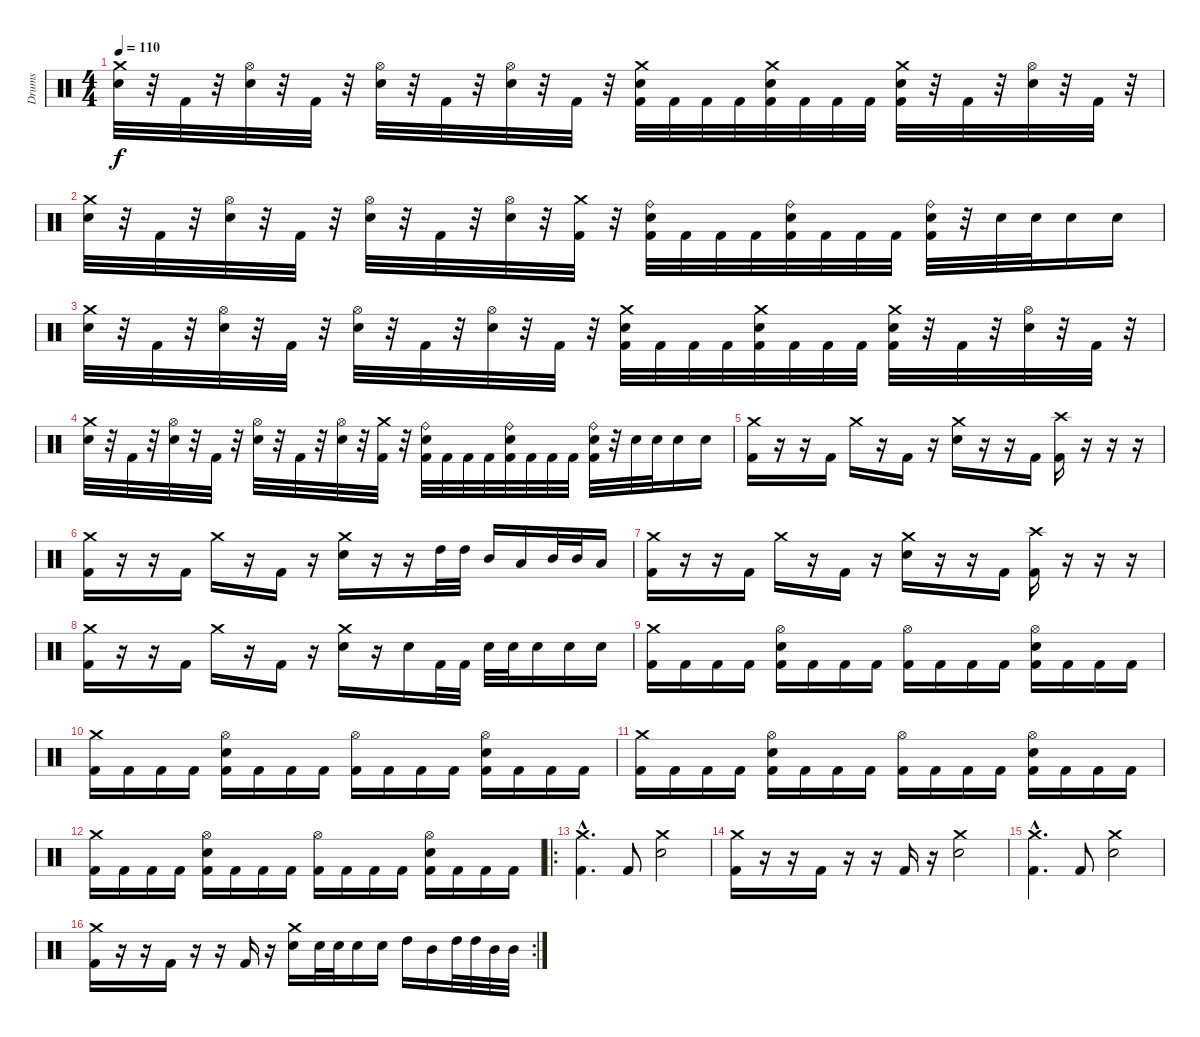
\track ("Drums" "Drums") {instrument percussion}
\staff {score}
\articulation defaults
\ts (4 4)
\tempo 110
\clef neutral
\ks c
("Crash medium (hit)" "Electric Snare (hit)").32{dy f} r.32 "Kick (hit) 2".32 r.32 ("Hi-Hat (open)" "Electric Snare (hit)").32 r.32 "Kick (hit) 2".32 r.32 ("Hi-Hat (open)" "Electric Snare (hit)").32 r.32 "Kick (hit) 2".32 r.32 ("Hi-Hat (open)" "Electric Snare (hit)").32 r.32 "Kick (hit) 2".32 r.32 ("Crash medium (hit)" "Electric Snare (hit)" "Kick (hit) 2").32 "Kick (hit) 2".32 "Kick (hit) 2".32 "Kick (hit) 2".32 ("Crash medium (hit)" "Electric Snare (hit)" "Kick (hit) 2").32 "Kick (hit) 2".32 "Kick (hit) 2".32 "Kick (hit) 2".32 ("Crash medium (hit)" "Electric Snare (hit)" "Kick (hit) 2").32 r.32 "Kick (hit) 2".32 r.32 ("Hi-Hat (open)" "Electric Snare (hit)").32 r.32 "Kick (hit) 2".32 r.32 |
("Crash medium (hit)" "Electric Snare (hit)").32 r.32 "Kick (hit) 2".32 r.32 ("Hi-Hat (open)" "Electric Snare (hit)").32 r.32 "Kick (hit) 2".32 r.32 ("Hi-Hat (open)" "Electric Snare (hit)").32 r.32 "Kick (hit) 2".32 r.32 ("Hi-Hat (open)" "Electric Snare (hit)").32 r.32 ("Crash medium (hit)" "Kick (hit) 2").32 r.32 ("Ride (bell)" "Electric Snare (hit)" "Kick (hit) 2").32 "Kick (hit) 2".32 "Kick (hit) 2".32 "Kick (hit) 2".32 ("Ride (bell)" "Electric Snare (hit)" "Kick (hit) 2").32 "Kick (hit) 2".32 "Kick (hit) 2".32 "Kick (hit) 2".32 ("Ride (bell)" "Electric Snare (hit)" "Kick (hit) 2").32 r.32 "Electric Snare (hit)".32 "Electric Snare (hit)".32 "Electric Snare (hit)".16 "Electric Snare (hit)".16 |
("Crash medium (hit)" "Electric Snare (hit)").32 r.32 "Kick (hit) 2".32 r.32 ("Hi-Hat (open)" "Electric Snare (hit)").32 r.32 "Kick (hit) 2".32 r.32 ("Hi-Hat (open)" "Electric Snare (hit)").32 r.32 "Kick (hit) 2".32 r.32 ("Hi-Hat (open)" "Electric Snare (hit)").32 r.32 "Kick (hit) 2".32 r.32 ("Crash medium (hit)" "Electric Snare (hit)" "Kick (hit) 2").32 "Kick (hit) 2".32 "Kick (hit) 2".32 "Kick (hit) 2".32 ("Crash medium (hit)" "Electric Snare (hit)" "Kick (hit) 2").32 "Kick (hit) 2".32 "Kick (hit) 2".32 "Kick (hit) 2".32 ("Crash medium (hit)" "Electric Snare (hit)" "Kick (hit) 2").32 r.32 "Kick (hit) 2".32 r.32 ("Hi-Hat (open)" "Electric Snare (hit)").32 r.32 "Kick (hit) 2".32 r.32 |
("Crash medium (hit)" "Electric Snare (hit)").32 r.32 "Kick (hit) 2".32 r.32 ("Hi-Hat (open)" "Electric Snare (hit)").32 r.32 "Kick (hit) 2".32 r.32 ("Hi-Hat (open)" "Electric Snare (hit)").32 r.32 "Kick (hit) 2".32 r.32 ("Hi-Hat (open)" "Electric Snare (hit)").32 r.32 ("Crash medium (hit)" "Kick (hit) 2").32 r.32 ("Ride (bell)" "Electric Snare (hit)" "Kick (hit) 2").32 "Kick (hit) 2".32 "Kick (hit) 2".32 "Kick (hit) 2".32 ("Ride (bell)" "Electric Snare (hit)" "Kick (hit) 2").32 "Kick (hit) 2".32 "Kick (hit) 2".32 "Kick (hit) 2".32 ("Ride (bell)" "Electric Snare (hit)" "Kick (hit) 2").32 r.32 "Electric Snare (hit)".32 "Electric Snare (hit)".32 "Electric Snare (hit)".16 "Electric Snare (hit)".16 |
("Crash medium (hit)" "Kick (hit) 2").16 r.16 r.16 "Kick (hit) 2".16 "Crash medium (hit)".16 r.16 "Kick (hit) 2".16 r.16 ("Crash medium (hit)" "Electric Snare (hit)").16 r.16 r.16 "Kick (hit) 2".16 ("Crash high (hit)" "Kick (hit) 2").16 r.16 r.16 r.16 |
("Crash medium (hit)" "Kick (hit) 2").16 r.16 r.16 "Kick (hit) 2".16 "Crash medium (hit)".16 r.16 "Kick (hit) 2".16 r.16 ("Crash medium (hit)" "Electric Snare (hit)").16 r.16 r.16 "High Tom (hit)".32 "High Tom (hit)".32 "Mid Tom (hit)".16 "Low Tom (hit)".16 "Mid Tom (hit)".32 "Mid Tom (hit)".32 "Low Tom (hit)".16 |
("Crash medium (hit)" "Kick (hit) 2").16 r.16 r.16 "Kick (hit) 2".16 "Crash medium (hit)".16 r.16 "Kick (hit) 2".16 r.16 ("Crash medium (hit)" "Electric Snare (hit)").16 r.16 r.16 "Kick (hit) 2".16 ("Crash high (hit)" "Kick (hit) 2").16 r.16 r.16 r.16 |
("Crash medium (hit)" "Kick (hit) 2").16 r.16 r.16 "Kick (hit) 2".16 "Crash medium (hit)".16 r.16 "Kick (hit) 2".16 r.16 ("Crash medium (hit)" "Electric Snare (hit)").16 r.16 "Electric Snare (hit)".16 "Kick (hit) 2".32 "Kick (hit) 2".32 "Electric Snare (hit)".32 "Electric Snare (hit)".32 "Electric Snare (hit)".16 "Electric Snare (hit)".16 "Electric Snare (hit)".16 |
("Crash medium (hit)" "Kick (hit) 2").16 "Kick (hit) 2".16 "Kick (hit) 2".16 "Kick (hit) 2".16 ("Hi-Hat (open)" "Electric Snare (hit)" "Kick (hit) 2").16 "Kick (hit) 2".16 "Kick (hit) 2".16 "Kick (hit) 2".16 ("Hi-Hat (open)" "Kick (hit) 2").16 "Kick (hit) 2".16 "Kick (hit) 2".16 "Kick (hit) 2".16 ("Hi-Hat (open)" "Electric Snare (hit)" "Kick (hit) 2").16 "Kick (hit) 2".16 "Kick (hit) 2".16 "Kick (hit) 2".16 |
("Crash medium (hit)" "Kick (hit) 2").16 "Kick (hit) 2".16 "Kick (hit) 2".16 "Kick (hit) 2".16 ("Hi-Hat (open)" "Electric Snare (hit)" "Kick (hit) 2").16 "Kick (hit) 2".16 "Kick (hit) 2".16 "Kick (hit) 2".16 ("Hi-Hat (open)" "Kick (hit) 2").16 "Kick (hit) 2".16 "Kick (hit) 2".16 "Kick (hit) 2".16 ("Hi-Hat (open)" "Electric Snare (hit)" "Kick (hit) 2").16 "Kick (hit) 2".16 "Kick (hit) 2".16 "Kick (hit) 2".16 |
("Crash medium (hit)" "Kick (hit) 2").16 "Kick (hit) 2".16 "Kick (hit) 2".16 "Kick (hit) 2".16 ("Hi-Hat (open)" "Electric Snare (hit)" "Kick (hit) 2").16 "Kick (hit) 2".16 "Kick (hit) 2".16 "Kick (hit) 2".16 ("Hi-Hat (open)" "Kick (hit) 2").16 "Kick (hit) 2".16 "Kick (hit) 2".16 "Kick (hit) 2".16 ("Hi-Hat (open)" "Electric Snare (hit)" "Kick (hit) 2").16 "Kick (hit) 2".16 "Kick (hit) 2".16 "Kick (hit) 2".16 |
("Crash medium (hit)" "Kick (hit) 2").16 "Kick (hit) 2".16 "Kick (hit) 2".16 "Kick (hit) 2".16 ("Hi-Hat (open)" "Electric Snare (hit)" "Kick (hit) 2").16 "Kick (hit) 2".16 "Kick (hit) 2".16 "Kick (hit) 2".16 ("Hi-Hat (open)" "Kick (hit) 2").16 "Kick (hit) 2".16 "Kick (hit) 2".16 "Kick (hit) 2".16 ("Hi-Hat (open)" "Electric Snare (hit)" "Kick (hit) 2").16 "Kick (hit) 2".16 "Kick (hit) 2".16 "Kick (hit) 2".16 |
\ro
("Crash medium (hit)"{hac} "Kick (hit) 2"{hac}).4{d} "Kick (hit) 2".8 ("Crash medium (hit)" "Electric Snare (hit)").2 |
("Crash medium (hit)" "Kick (hit) 2").16 r.16 r.16 "Kick (hit) 2".16 r.16 r.16 "Kick (hit) 2".16 r.16 ("Crash medium (hit)" "Electric Snare (hit)").2 |
("Crash medium (hit)"{hac} "Kick (hit) 2"{hac}).4{d} "Kick (hit) 2".8 ("Crash medium (hit)" "Electric Snare (hit)").2 |
\rc 2
("Crash medium (hit)" "Kick (hit) 2").16 r.16 r.16 "Kick (hit) 2".16 r.16 r.16 "Kick (hit) 2".16 r.16 ("Crash medium (hit)" "Electric Snare (hit)").16 "Electric Snare (hit)".32 "Electric Snare (hit)".32 "Electric Snare (hit)".16 "Electric Snare (hit)".16 "High Tom (hit)".16 "Mid Tom (hit)".16 "High Tom (hit)".32 "High Tom (hit)".32 "Mid Tom (hit)".32 "Mid Tom (hit)".32
